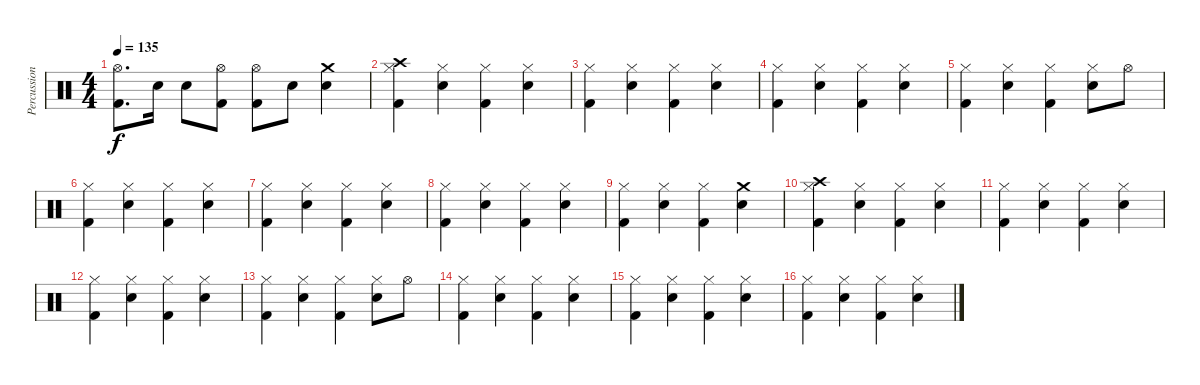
\track ("Percussions" "Percussion") {instrument percussion}
\staff {score}
\articulation defaults
\ts (4 4)
\tempo 135
\clef neutral
\ks c
("Hi-Hat (open)" "Kick (hit) 2").8{d dy f} "Snare (hit) 2".16 "Snare (hit) 2".8 ("Hi-Hat (open)" "Kick (hit) 2").8 ("Hi-Hat (open)" "Kick (hit) 2").8 "Snare (hit) 2".8 ("Crash medium (hit)" "Snare (hit) 2").4 |
("Crash high (hit)" "Hi-Hat (closed)" "Kick (hit) 2").4 ("Hi-Hat (closed)" "Snare (hit) 2").4 ("Hi-Hat (closed)" "Kick (hit) 2").4 ("Hi-Hat (closed)" "Snare (hit) 2").4 |
("Hi-Hat (closed)" "Kick (hit) 2").4 ("Hi-Hat (closed)" "Snare (hit) 2").4 ("Hi-Hat (closed)" "Kick (hit) 2").4 ("Hi-Hat (closed)" "Snare (hit) 2").4 |
("Hi-Hat (closed)" "Kick (hit) 2").4 ("Hi-Hat (closed)" "Snare (hit) 2").4 ("Hi-Hat (closed)" "Kick (hit) 2").4 ("Hi-Hat (closed)" "Snare (hit) 2").4 |
("Hi-Hat (closed)" "Kick (hit) 2").4 ("Hi-Hat (closed)" "Snare (hit) 2").4 ("Hi-Hat (closed)" "Kick (hit) 2").4 ("Hi-Hat (closed)" "Snare (hit) 2").8 "Hi-Hat (open)".8 |
("Hi-Hat (closed)" "Kick (hit) 2").4 ("Hi-Hat (closed)" "Snare (hit) 2").4 ("Hi-Hat (closed)" "Kick (hit) 2").4 ("Hi-Hat (closed)" "Snare (hit) 2").4 |
("Hi-Hat (closed)" "Kick (hit) 2").4 ("Hi-Hat (closed)" "Snare (hit) 2").4 ("Hi-Hat (closed)" "Kick (hit) 2").4 ("Hi-Hat (closed)" "Snare (hit) 2").4 |
("Hi-Hat (closed)" "Kick (hit) 2").4 ("Hi-Hat (closed)" "Snare (hit) 2").4 ("Hi-Hat (closed)" "Kick (hit) 2").4 ("Hi-Hat (closed)" "Snare (hit) 2").4 |
("Hi-Hat (closed)" "Kick (hit) 2").4 ("Hi-Hat (closed)" "Snare (hit) 2").4 ("Hi-Hat (closed)" "Kick (hit) 2").4 ("Crash medium (hit)" "Snare (hit) 2").4 |
("Crash high (hit)" "Hi-Hat (closed)" "Kick (hit) 2").4 ("Hi-Hat (closed)" "Snare (hit) 2").4 ("Hi-Hat (closed)" "Kick (hit) 2").4 ("Hi-Hat (closed)" "Snare (hit) 2").4 |
("Hi-Hat (closed)" "Kick (hit) 2").4 ("Hi-Hat (closed)" "Snare (hit) 2").4 ("Hi-Hat (closed)" "Kick (hit) 2").4 ("Hi-Hat (closed)" "Snare (hit) 2").4 |
("Hi-Hat (closed)" "Kick (hit) 2").4 ("Hi-Hat (closed)" "Snare (hit) 2").4 ("Hi-Hat (closed)" "Kick (hit) 2").4 ("Hi-Hat (closed)" "Snare (hit) 2").4 |
("Hi-Hat (closed)" "Kick (hit) 2").4 ("Hi-Hat (closed)" "Snare (hit) 2").4 ("Hi-Hat (closed)" "Kick (hit) 2").4 ("Hi-Hat (closed)" "Snare (hit) 2").8 "Hi-Hat (open)".8 |
("Hi-Hat (closed)" "Kick (hit) 2").4 ("Hi-Hat (closed)" "Snare (hit) 2").4 ("Hi-Hat (closed)" "Kick (hit) 2").4 ("Hi-Hat (closed)" "Snare (hit) 2").4 |
("Hi-Hat (closed)" "Kick (hit) 2").4 ("Hi-Hat (closed)" "Snare (hit) 2").4 ("Hi-Hat (closed)" "Kick (hit) 2").4 ("Hi-Hat (closed)" "Snare (hit) 2").4 |
("Hi-Hat (closed)" "Kick (hit) 2").4 ("Hi-Hat (closed)" "Snare (hit) 2").4 ("Hi-Hat (closed)" "Kick (hit) 2").4 ("Hi-Hat (closed)" "Snare (hit) 2").4
